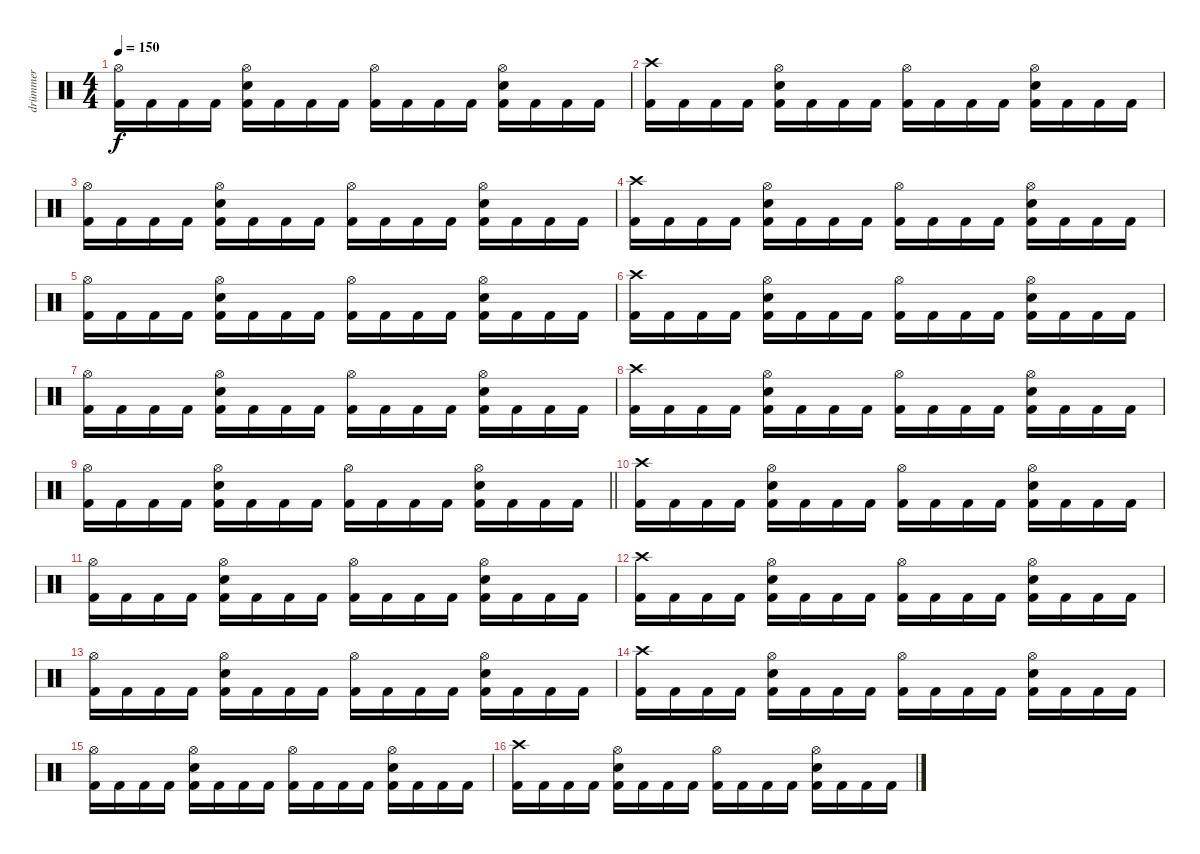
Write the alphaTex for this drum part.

\track ("drümmer" "drümmer") {instrument percussion}
\staff {score}
\articulation defaults
\ts (4 4)
\tempo 150
\clef neutral
\ks c
("Hi-Hat (open)" "Kick (hit) 2").16{dy f} "Kick (hit) 2".16 "Kick (hit) 2".16 "Kick (hit) 2".16 ("Hi-Hat (open)" "Snare (hit) 2" "Kick (hit) 2").16 "Kick (hit) 2".16 "Kick (hit) 2".16 "Kick (hit) 2".16 ("Hi-Hat (open)" "Kick (hit) 2").16 "Kick (hit) 2".16 "Kick (hit) 2".16 "Kick (hit) 2".16 ("Hi-Hat (open)" "Snare (hit) 2" "Kick (hit) 2").16 "Kick (hit) 2".16 "Kick (hit) 2".16 "Kick (hit) 2".16 |
("Crash high (hit)" "Kick (hit) 2").16 "Kick (hit) 2".16 "Kick (hit) 2".16 "Kick (hit) 2".16 ("Hi-Hat (open)" "Snare (hit) 2" "Kick (hit) 2").16 "Kick (hit) 2".16 "Kick (hit) 2".16 "Kick (hit) 2".16 ("Hi-Hat (open)" "Kick (hit) 2").16 "Kick (hit) 2".16 "Kick (hit) 2".16 "Kick (hit) 2".16 ("Hi-Hat (open)" "Snare (hit) 2" "Kick (hit) 2").16 "Kick (hit) 2".16 "Kick (hit) 2".16 "Kick (hit) 2".16 |
("Hi-Hat (open)" "Kick (hit) 2").16 "Kick (hit) 2".16 "Kick (hit) 2".16 "Kick (hit) 2".16 ("Hi-Hat (open)" "Snare (hit) 2" "Kick (hit) 2").16 "Kick (hit) 2".16 "Kick (hit) 2".16 "Kick (hit) 2".16 ("Hi-Hat (open)" "Kick (hit) 2").16 "Kick (hit) 2".16 "Kick (hit) 2".16 "Kick (hit) 2".16 ("Hi-Hat (open)" "Snare (hit) 2" "Kick (hit) 2").16 "Kick (hit) 2".16 "Kick (hit) 2".16 "Kick (hit) 2".16 |
("Crash high (hit)" "Kick (hit) 2").16 "Kick (hit) 2".16 "Kick (hit) 2".16 "Kick (hit) 2".16 ("Hi-Hat (open)" "Snare (hit) 2" "Kick (hit) 2").16 "Kick (hit) 2".16 "Kick (hit) 2".16 "Kick (hit) 2".16 ("Hi-Hat (open)" "Kick (hit) 2").16 "Kick (hit) 2".16 "Kick (hit) 2".16 "Kick (hit) 2".16 ("Hi-Hat (open)" "Snare (hit) 2" "Kick (hit) 2").16 "Kick (hit) 2".16 "Kick (hit) 2".16 "Kick (hit) 2".16 |
("Hi-Hat (open)" "Kick (hit) 2").16 "Kick (hit) 2".16 "Kick (hit) 2".16 "Kick (hit) 2".16 ("Hi-Hat (open)" "Snare (hit) 2" "Kick (hit) 2").16 "Kick (hit) 2".16 "Kick (hit) 2".16 "Kick (hit) 2".16 ("Hi-Hat (open)" "Kick (hit) 2").16 "Kick (hit) 2".16 "Kick (hit) 2".16 "Kick (hit) 2".16 ("Hi-Hat (open)" "Snare (hit) 2" "Kick (hit) 2").16 "Kick (hit) 2".16 "Kick (hit) 2".16 "Kick (hit) 2".16 |
("Crash high (hit)" "Kick (hit) 2").16 "Kick (hit) 2".16 "Kick (hit) 2".16 "Kick (hit) 2".16 ("Hi-Hat (open)" "Snare (hit) 2" "Kick (hit) 2").16 "Kick (hit) 2".16 "Kick (hit) 2".16 "Kick (hit) 2".16 ("Hi-Hat (open)" "Kick (hit) 2").16 "Kick (hit) 2".16 "Kick (hit) 2".16 "Kick (hit) 2".16 ("Hi-Hat (open)" "Snare (hit) 2" "Kick (hit) 2").16 "Kick (hit) 2".16 "Kick (hit) 2".16 "Kick (hit) 2".16 |
("Hi-Hat (open)" "Kick (hit) 2").16 "Kick (hit) 2".16 "Kick (hit) 2".16 "Kick (hit) 2".16 ("Hi-Hat (open)" "Snare (hit) 2" "Kick (hit) 2").16 "Kick (hit) 2".16 "Kick (hit) 2".16 "Kick (hit) 2".16 ("Hi-Hat (open)" "Kick (hit) 2").16 "Kick (hit) 2".16 "Kick (hit) 2".16 "Kick (hit) 2".16 ("Hi-Hat (open)" "Snare (hit) 2" "Kick (hit) 2").16 "Kick (hit) 2".16 "Kick (hit) 2".16 "Kick (hit) 2".16 |
("Crash high (hit)" "Kick (hit) 2").16 "Kick (hit) 2".16 "Kick (hit) 2".16 "Kick (hit) 2".16 ("Hi-Hat (open)" "Snare (hit) 2" "Kick (hit) 2").16 "Kick (hit) 2".16 "Kick (hit) 2".16 "Kick (hit) 2".16 ("Hi-Hat (open)" "Kick (hit) 2").16 "Kick (hit) 2".16 "Kick (hit) 2".16 "Kick (hit) 2".16 ("Hi-Hat (open)" "Snare (hit) 2" "Kick (hit) 2").16 "Kick (hit) 2".16 "Kick (hit) 2".16 "Kick (hit) 2".16 |
\barLineRight lightlight
("Hi-Hat (open)" "Kick (hit) 2").16 "Kick (hit) 2".16 "Kick (hit) 2".16 "Kick (hit) 2".16 ("Hi-Hat (open)" "Snare (hit) 2" "Kick (hit) 2").16 "Kick (hit) 2".16 "Kick (hit) 2".16 "Kick (hit) 2".16 ("Hi-Hat (open)" "Kick (hit) 2").16 "Kick (hit) 2".16 "Kick (hit) 2".16 "Kick (hit) 2".16 ("Hi-Hat (open)" "Snare (hit) 2" "Kick (hit) 2").16 "Kick (hit) 2".16 "Kick (hit) 2".16 "Kick (hit) 2".16 |
("Crash high (hit)" "Kick (hit) 2").16 "Kick (hit) 2".16 "Kick (hit) 2".16 "Kick (hit) 2".16 ("Hi-Hat (open)" "Snare (hit) 2" "Kick (hit) 2").16 "Kick (hit) 2".16 "Kick (hit) 2".16 "Kick (hit) 2".16 ("Hi-Hat (open)" "Kick (hit) 2").16 "Kick (hit) 2".16 "Kick (hit) 2".16 "Kick (hit) 2".16 ("Hi-Hat (open)" "Snare (hit) 2" "Kick (hit) 2").16 "Kick (hit) 2".16 "Kick (hit) 2".16 "Kick (hit) 2".16 |
("Hi-Hat (open)" "Kick (hit) 2").16 "Kick (hit) 2".16 "Kick (hit) 2".16 "Kick (hit) 2".16 ("Hi-Hat (open)" "Snare (hit) 2" "Kick (hit) 2").16 "Kick (hit) 2".16 "Kick (hit) 2".16 "Kick (hit) 2".16 ("Hi-Hat (open)" "Kick (hit) 2").16 "Kick (hit) 2".16 "Kick (hit) 2".16 "Kick (hit) 2".16 ("Hi-Hat (open)" "Snare (hit) 2" "Kick (hit) 2").16 "Kick (hit) 2".16 "Kick (hit) 2".16 "Kick (hit) 2".16 |
("Crash high (hit)" "Kick (hit) 2").16 "Kick (hit) 2".16 "Kick (hit) 2".16 "Kick (hit) 2".16 ("Hi-Hat (open)" "Snare (hit) 2" "Kick (hit) 2").16 "Kick (hit) 2".16 "Kick (hit) 2".16 "Kick (hit) 2".16 ("Hi-Hat (open)" "Kick (hit) 2").16 "Kick (hit) 2".16 "Kick (hit) 2".16 "Kick (hit) 2".16 ("Hi-Hat (open)" "Snare (hit) 2" "Kick (hit) 2").16 "Kick (hit) 2".16 "Kick (hit) 2".16 "Kick (hit) 2".16 |
("Hi-Hat (open)" "Kick (hit) 2").16 "Kick (hit) 2".16 "Kick (hit) 2".16 "Kick (hit) 2".16 ("Hi-Hat (open)" "Snare (hit) 2" "Kick (hit) 2").16 "Kick (hit) 2".16 "Kick (hit) 2".16 "Kick (hit) 2".16 ("Hi-Hat (open)" "Kick (hit) 2").16 "Kick (hit) 2".16 "Kick (hit) 2".16 "Kick (hit) 2".16 ("Hi-Hat (open)" "Snare (hit) 2" "Kick (hit) 2").16 "Kick (hit) 2".16 "Kick (hit) 2".16 "Kick (hit) 2".16 |
("Crash high (hit)" "Kick (hit) 2").16 "Kick (hit) 2".16 "Kick (hit) 2".16 "Kick (hit) 2".16 ("Hi-Hat (open)" "Snare (hit) 2" "Kick (hit) 2").16 "Kick (hit) 2".16 "Kick (hit) 2".16 "Kick (hit) 2".16 ("Hi-Hat (open)" "Kick (hit) 2").16 "Kick (hit) 2".16 "Kick (hit) 2".16 "Kick (hit) 2".16 ("Hi-Hat (open)" "Snare (hit) 2" "Kick (hit) 2").16 "Kick (hit) 2".16 "Kick (hit) 2".16 "Kick (hit) 2".16 |
("Hi-Hat (open)" "Kick (hit) 2").16 "Kick (hit) 2".16 "Kick (hit) 2".16 "Kick (hit) 2".16 ("Hi-Hat (open)" "Snare (hit) 2" "Kick (hit) 2").16 "Kick (hit) 2".16 "Kick (hit) 2".16 "Kick (hit) 2".16 ("Hi-Hat (open)" "Kick (hit) 2").16 "Kick (hit) 2".16 "Kick (hit) 2".16 "Kick (hit) 2".16 ("Hi-Hat (open)" "Snare (hit) 2" "Kick (hit) 2").16 "Kick (hit) 2".16 "Kick (hit) 2".16 "Kick (hit) 2".16 |
("Crash high (hit)" "Kick (hit) 2").16 "Kick (hit) 2".16 "Kick (hit) 2".16 "Kick (hit) 2".16 ("Hi-Hat (open)" "Snare (hit) 2" "Kick (hit) 2").16 "Kick (hit) 2".16 "Kick (hit) 2".16 "Kick (hit) 2".16 ("Hi-Hat (open)" "Kick (hit) 2").16 "Kick (hit) 2".16 "Kick (hit) 2".16 "Kick (hit) 2".16 ("Hi-Hat (open)" "Snare (hit) 2" "Kick (hit) 2").16 "Kick (hit) 2".16 "Kick (hit) 2".16 "Kick (hit) 2".16
